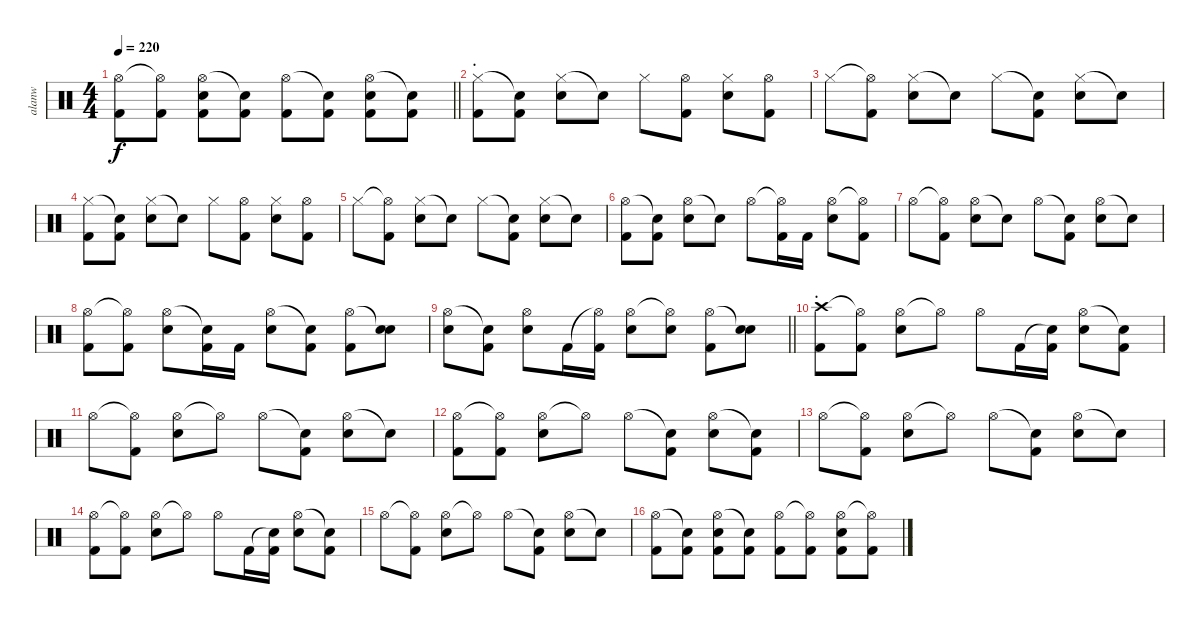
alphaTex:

\track ("alanw" "alanw") {instrument percussion}
\staff {score}
\articulation defaults
\ts (4 4)
\tempo 220
\clef neutral
\barLineRight lightlight
\ks c
("Hi-Hat (open)" "Kick (hit) 2").8{dy f} ("Hi-Hat (open)"{t} "Kick (hit) 2").8 ("Hi-Hat (open)" "Electric Snare (hit)" "Kick (hit) 2").8 ("Snare (hit)"{t} "Kick (hit) 2").8 ("Hi-Hat (open)" "Kick (hit) 2").8 ("Snare (hit)"{t} "Kick (hit) 2").8 ("Hi-Hat (open)" "Electric Snare (hit)" "Kick (hit) 2").8 ("Snare (hit)"{t} "Kick (hit) 2").8 |
\section ("" ".")
("Hi-Hat (closed)" "Kick (hit) 2").8 ("Snare (hit)"{t} "Kick (hit) 2").8 ("Hi-Hat (closed)" "Electric Snare (hit)").8 "Snare (hit)"{t}.8 "Hi-Hat (closed)".8 ("Hi-Hat (open)" "Kick (hit) 2").8 ("Hi-Hat (closed)" "Electric Snare (hit)").8 ("Hi-Hat (open)" "Kick (hit) 2").8 |
"Hi-Hat (closed)".8 ("Hi-Hat (open)"{t} "Kick (hit) 2").8 ("Hi-Hat (closed)" "Electric Snare (hit)").8 "Snare (hit)"{t}.8 "Hi-Hat (closed)".8 ("Snare (hit)"{t} "Kick (hit) 2").8 ("Hi-Hat (closed)" "Electric Snare (hit)").8 "Snare (hit)"{t}.8 |
("Hi-Hat (closed)" "Kick (hit) 2").8 ("Snare (hit)"{t} "Kick (hit) 2").8 ("Hi-Hat (closed)" "Electric Snare (hit)").8 "Snare (hit)"{t}.8 "Hi-Hat (closed)".8 ("Hi-Hat (open)" "Kick (hit) 2").8 ("Hi-Hat (closed)" "Electric Snare (hit)").8 ("Hi-Hat (open)" "Kick (hit) 2").8 |
"Hi-Hat (closed)".8 ("Hi-Hat (open)"{t} "Kick (hit) 2").8 ("Hi-Hat (closed)" "Electric Snare (hit)").8 "Snare (hit)"{t}.8 "Hi-Hat (closed)".8 ("Snare (hit)"{t} "Kick (hit) 2").8 ("Hi-Hat (closed)" "Electric Snare (hit)").8 "Snare (hit)"{t}.8 |
("Hi-Hat (open)" "Kick (hit) 2").8 ("Snare (hit)"{t} "Kick (hit) 2").8 ("Hi-Hat (open)" "Electric Snare (hit)").8 "Snare (hit)"{t}.8 "Hi-Hat (open)".8 ("Hi-Hat (open)"{t} "Kick (hit) 2").16 "Kick (hit) 2".16 ("Hi-Hat (open)" "Electric Snare (hit)").8 ("Hi-Hat (open)"{t} "Kick (hit) 2").8 |
"Hi-Hat (open)".8 ("Hi-Hat (open)"{t} "Kick (hit) 2").8 ("Hi-Hat (open)" "Electric Snare (hit)").8 "Snare (hit)"{t}.8 "Hi-Hat (open)".8 ("Snare (hit)"{t} "Kick (hit) 2").8 ("Hi-Hat (open)" "Electric Snare (hit)").8 "Snare (hit)"{t}.8 |
("Hi-Hat (open)" "Kick (hit) 2").8 ("Hi-Hat (open)"{t} "Kick (hit) 2").8 ("Hi-Hat (open)" "Electric Snare (hit)").8 ("Snare (hit)"{t} "Kick (hit) 2").16 "Kick (hit) 2".16 ("Hi-Hat (open)" "Electric Snare (hit)").8 ("Snare (hit)"{t} "Kick (hit) 2").8 ("Hi-Hat (open)" "Kick (hit) 2").8 ("Snare (hit)"{t} "Electric Snare (hit)").8 |
\barLineRight lightlight
("Hi-Hat (open)" "Electric Snare (hit)").8 ("Snare (hit)"{t} "Kick (hit) 2").8 ("Hi-Hat (open)" "Electric Snare (hit)").8 "Kick (hit) 2".16 ("Hi-Hat (open)"{t} "Kick (hit) 2").16 ("Hi-Hat (open)" "Electric Snare (hit)").8 ("Hi-Hat (open)"{t} "Electric Snare (hit)").8 ("Hi-Hat (open)" "Kick (hit) 2").8 ("Snare (hit)"{t} "Electric Snare (hit)").8 |
\section ("" ".")
("Crash high (hit)" "Kick (hit) 2").8 ("Hi-Hat (open)"{t} "Kick (hit) 2").8 ("Hi-Hat (open)" "Electric Snare (hit)").8 "Hi-Hat (open)"{t}.8 "Hi-Hat (open)".8 "Kick (hit) 2".16 ("Snare (hit)"{t} "Kick (hit) 2").16 ("Hi-Hat (open)" "Electric Snare (hit)").8 ("Snare (hit)"{t} "Kick (hit) 2").8 |
"Hi-Hat (open)".8 ("Hi-Hat (open)"{t} "Kick (hit) 2").8 ("Hi-Hat (open)" "Electric Snare (hit)").8 "Hi-Hat (open)"{t}.8 "Hi-Hat (open)".8 ("Snare (hit)"{t} "Kick (hit) 2").8 ("Hi-Hat (open)" "Electric Snare (hit)").8 "Snare (hit)"{t}.8 |
("Hi-Hat (open)" "Kick (hit) 2").8 ("Hi-Hat (open)"{t} "Kick (hit) 2").8 ("Hi-Hat (open)" "Electric Snare (hit)").8 "Hi-Hat (open)"{t}.8 "Hi-Hat (open)".8 ("Snare (hit)"{t} "Kick (hit) 2").8 ("Hi-Hat (open)" "Electric Snare (hit)").8 ("Snare (hit)"{t} "Kick (hit) 2").8 |
"Hi-Hat (open)".8 ("Hi-Hat (open)"{t} "Kick (hit) 2").8 ("Hi-Hat (open)" "Electric Snare (hit)").8 "Hi-Hat (open)"{t}.8 "Hi-Hat (open)".8 ("Snare (hit)"{t} "Kick (hit) 2").8 ("Hi-Hat (open)" "Electric Snare (hit)").8 "Snare (hit)"{t}.8 |
("Hi-Hat (open)" "Kick (hit) 2").8 ("Hi-Hat (open)"{t} "Kick (hit) 2").8 ("Hi-Hat (open)" "Electric Snare (hit)").8 "Hi-Hat (open)"{t}.8 "Hi-Hat (open)".8 "Kick (hit) 2".16 ("Snare (hit)"{t} "Kick (hit) 2").16 ("Hi-Hat (open)" "Electric Snare (hit)").8 ("Snare (hit)"{t} "Kick (hit) 2").8 |
"Hi-Hat (open)".8 ("Hi-Hat (open)"{t} "Kick (hit) 2").8 ("Hi-Hat (open)" "Electric Snare (hit)").8 "Hi-Hat (open)"{t}.8 "Hi-Hat (open)".8 ("Snare (hit)"{t} "Kick (hit) 2").8 ("Hi-Hat (open)" "Electric Snare (hit)").8 "Snare (hit)"{t}.8 |
("Hi-Hat (open)" "Kick (hit) 2").8 ("Snare (hit)"{t} "Kick (hit) 2").8 ("Hi-Hat (open)" "Electric Snare (hit)" "Kick (hit) 2").8 ("Snare (hit)"{t} "Kick (hit) 2").8 ("Hi-Hat (open)" "Kick (hit) 2").8 ("Hi-Hat (open)"{t} "Kick (hit) 2").8 ("Hi-Hat (open)" "Electric Snare (hit)" "Kick (hit) 2").8 ("Hi-Hat (open)"{t} "Kick (hit) 2").8
